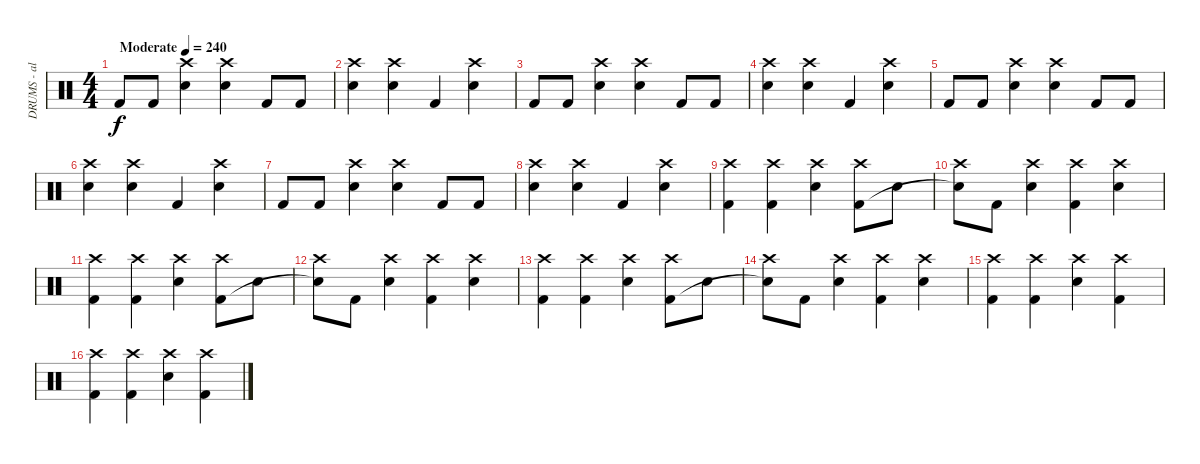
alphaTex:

\track ("DRUMS - alastor" "DRUMS - al") {instrument percussion}
\staff {score}
\articulation defaults
\ts (4 4)
\tempo (240 "Moderate")
\clef neutral
\ks c "Kick (hit) 2".8{dy f} "Kick (hit) 2".8
("Crash high (hit)" "Snare (hit) 2").4 ("Crash high (hit)" "Snare (hit) 2").4 "Kick (hit) 2".8 "Kick (hit) 2".8 |
("Crash high (hit)" "Snare (hit) 2").4 ("Crash high (hit)" "Snare (hit) 2").4 "Kick (hit) 2".4 ("Crash high (hit)" "Snare (hit) 2").4 |
"Kick (hit) 2".8 "Kick (hit) 2".8 ("Crash high (hit)" "Snare (hit) 2").4 ("Crash high (hit)" "Snare (hit) 2").4 "Kick (hit) 2".8 "Kick (hit) 2".8 |
("Crash high (hit)" "Snare (hit) 2").4 ("Crash high (hit)" "Snare (hit) 2").4 "Kick (hit) 2".4 ("Crash high (hit)" "Snare (hit) 2").4 |
"Kick (hit) 2".8 "Kick (hit) 2".8 ("Crash high (hit)" "Snare (hit) 2").4 ("Crash high (hit)" "Snare (hit) 2").4 "Kick (hit) 2".8 "Kick (hit) 2".8 |
("Crash high (hit)" "Snare (hit) 2").4 ("Crash high (hit)" "Snare (hit) 2").4 "Kick (hit) 2".4 ("Crash high (hit)" "Snare (hit) 2").4 |
"Kick (hit) 2".8 "Kick (hit) 2".8 ("Crash high (hit)" "Snare (hit) 2").4 ("Crash high (hit)" "Snare (hit) 2").4 "Kick (hit) 2".8 "Kick (hit) 2".8 |
("Crash high (hit)" "Snare (hit) 2").4 ("Crash high (hit)" "Snare (hit) 2").4 "Kick (hit) 2".4 ("Crash high (hit)" "Snare (hit) 2").4 |
("Crash high (hit)" "Kick (hit) 2").4 ("Crash high (hit)" "Kick (hit) 2").4 ("Crash high (hit)" "Snare (hit) 2").4 ("Crash high (hit)" "Kick (hit) 2").8 "Snare (hit) 2".8 |
("Crash high (hit)" "Snare (hit) 2"{t}).8 "Kick (hit) 2".8 ("Crash high (hit)" "Snare (hit) 2").4 ("Crash high (hit)" "Kick (hit) 2").4 ("Crash high (hit)" "Snare (hit) 2").4 |
("Crash high (hit)" "Kick (hit) 2").4 ("Crash high (hit)" "Kick (hit) 2").4 ("Crash high (hit)" "Snare (hit) 2").4 ("Crash high (hit)" "Kick (hit) 2").8 "Snare (hit) 2".8 |
("Crash high (hit)" "Snare (hit) 2"{t}).8 "Kick (hit) 2".8 ("Crash high (hit)" "Snare (hit) 2").4 ("Crash high (hit)" "Kick (hit) 2").4 ("Crash high (hit)" "Snare (hit) 2").4 |
("Crash high (hit)" "Kick (hit) 2").4 ("Crash high (hit)" "Kick (hit) 2").4 ("Crash high (hit)" "Snare (hit) 2").4 ("Crash high (hit)" "Kick (hit) 2").8 "Snare (hit) 2".8 |
("Crash high (hit)" "Snare (hit) 2"{t}).8 "Kick (hit) 2".8 ("Crash high (hit)" "Snare (hit) 2").4 ("Crash high (hit)" "Kick (hit) 2").4 ("Crash high (hit)" "Snare (hit) 2").4 |
("Crash high (hit)" "Kick (hit) 2").4 ("Crash high (hit)" "Kick (hit) 2").4 ("Crash high (hit)" "Snare (hit) 2").4 ("Crash high (hit)" "Kick (hit) 2").4 |
("Crash high (hit)" "Kick (hit) 2").4 ("Crash high (hit)" "Kick (hit) 2").4 ("Crash high (hit)" "Snare (hit) 2").4 ("Crash high (hit)" "Kick (hit) 2").4
